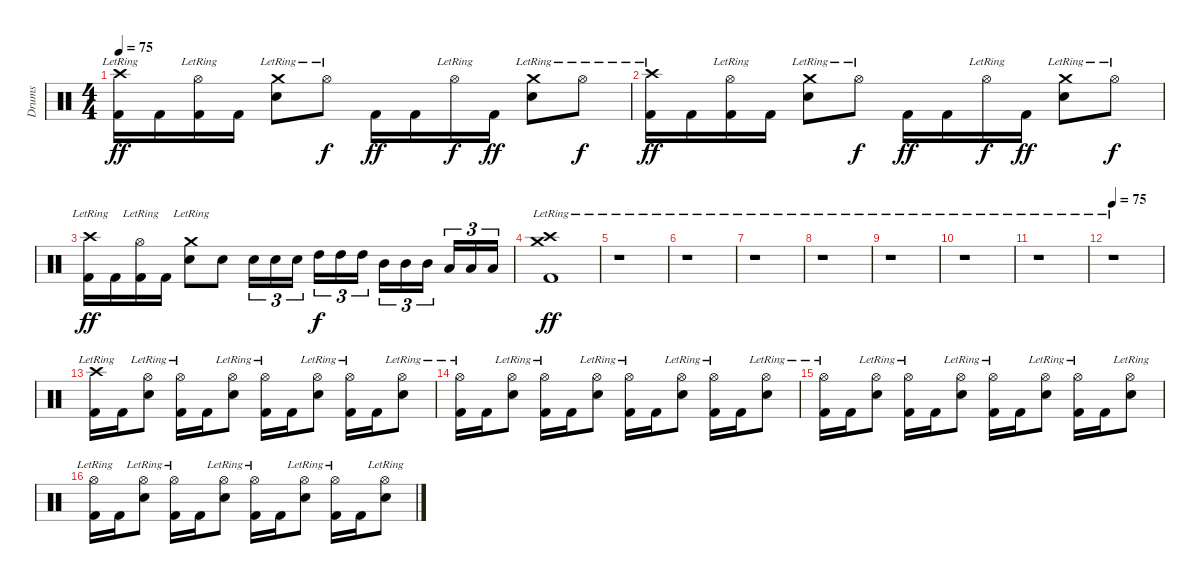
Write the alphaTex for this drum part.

\track ("Drums" "Drums") {instrument percussion}
\staff {score}
\articulation defaults
\ts (4 4)
\tempo 75
\clef neutral
\ks c
("Crash high (hit)"{lr} "Kick (hit) 2").16{dy ff} "Kick (hit) 2".16 ("Hi-Hat (open)"{lr} "Kick (hit) 2").16 "Kick (hit) 2".16 ("Crash medium (hit)"{lr} "Snare (hit) 2").8 "Hi-Hat (open)"{lr}.8{dy f} "Kick (hit) 2".16{dy ff} "Kick (hit) 2".16 "Hi-Hat (open)"{lr}.16{dy f} "Kick (hit) 2".16{dy ff} ("Crash medium (hit)"{lr} "Snare (hit) 2").8 "Hi-Hat (open)"{lr}.8{dy f} |
("Crash high (hit)"{lr} "Kick (hit) 2").16{dy ff} "Kick (hit) 2".16 ("Hi-Hat (open)"{lr} "Kick (hit) 2").16 "Kick (hit) 2".16 ("Crash medium (hit)"{lr} "Snare (hit) 2").8 "Hi-Hat (open)"{lr}.8{dy f} "Kick (hit) 2".16{dy ff} "Kick (hit) 2".16 "Hi-Hat (open)"{lr}.16{dy f} "Kick (hit) 2".16{dy ff} ("Crash medium (hit)"{lr} "Snare (hit) 2").8 "Hi-Hat (open)"{lr}.8{dy f} |
("Crash high (hit)"{lr} "Kick (hit) 2").16{dy ff} "Kick (hit) 2".16 ("Hi-Hat (open)"{lr} "Kick (hit) 2").16 "Kick (hit) 2".16 ("Crash medium (hit)"{lr} "Snare (hit) 2").8 "Snare (hit) 2".8 "Snare (hit) 2".16{tu (3 2)} "Snare (hit) 2".16{tu (3 2)} "Snare (hit) 2".16{tu (3 2)} "High Tom (hit)".16{tu (3 2) dy f} "High Tom (hit)".16{tu (3 2)} "High Tom (hit)".16{tu (3 2)} "Mid Tom (hit)".16{tu (3 2)} "Mid Tom (hit)".16{tu (3 2)} "Mid Tom (hit)".16{tu (3 2)} "Low Tom (hit)".16{tu (3 2)} "Low Tom (hit)".16{tu (3 2)} "Low Tom (hit)".16{tu (3 2)} |
("Crash medium (hit)"{lr} "Crash high (hit)"{lr} "Kick (hit) 2").1{dy ff} |
r.1 |
r.1 |
r.1 |
r.1 |
r.1 |
r.1 |
r.1 |
\tempo 75
r.1 |
("Crash high (hit)"{lr} "Kick (hit) 2").16 "Kick (hit) 2".16 ("Hi-Hat (open)"{lr} "Snare (hit) 2").8 ("Hi-Hat (open)"{lr} "Kick (hit) 2").16 "Kick (hit) 2".16 ("Hi-Hat (open)"{lr} "Snare (hit) 2").8 ("Hi-Hat (open)"{lr} "Kick (hit) 2").16 "Kick (hit) 2".16 ("Hi-Hat (open)"{lr} "Snare (hit) 2").8 ("Hi-Hat (open)"{lr} "Kick (hit) 2").16 "Kick (hit) 2".16 ("Hi-Hat (open)"{lr} "Snare (hit) 2").8 |
("Hi-Hat (open)"{lr} "Kick (hit) 2").16 "Kick (hit) 2".16 ("Hi-Hat (open)"{lr} "Snare (hit) 2").8 ("Hi-Hat (open)"{lr} "Kick (hit) 2").16 "Kick (hit) 2".16 ("Hi-Hat (open)"{lr} "Snare (hit) 2").8 ("Hi-Hat (open)"{lr} "Kick (hit) 2").16 "Kick (hit) 2".16 ("Hi-Hat (open)"{lr} "Snare (hit) 2").8 ("Hi-Hat (open)"{lr} "Kick (hit) 2").16 "Kick (hit) 2".16 ("Hi-Hat (open)"{lr} "Snare (hit) 2").8 |
("Hi-Hat (open)"{lr} "Kick (hit) 2").16 "Kick (hit) 2".16 ("Hi-Hat (open)"{lr} "Snare (hit) 2").8 ("Hi-Hat (open)"{lr} "Kick (hit) 2").16 "Kick (hit) 2".16 ("Hi-Hat (open)"{lr} "Snare (hit) 2").8 ("Hi-Hat (open)"{lr} "Kick (hit) 2").16 "Kick (hit) 2".16 ("Hi-Hat (open)"{lr} "Snare (hit) 2").8 ("Hi-Hat (open)"{lr} "Kick (hit) 2").16 "Kick (hit) 2".16 ("Hi-Hat (open)"{lr} "Snare (hit) 2").8 |
("Hi-Hat (open)"{lr} "Kick (hit) 2").16 "Kick (hit) 2".16 ("Hi-Hat (open)"{lr} "Snare (hit) 2").8 ("Hi-Hat (open)"{lr} "Kick (hit) 2").16 "Kick (hit) 2".16 ("Hi-Hat (open)"{lr} "Snare (hit) 2").8 ("Hi-Hat (open)"{lr} "Kick (hit) 2").16 "Kick (hit) 2".16 ("Hi-Hat (open)"{lr} "Snare (hit) 2").8 ("Hi-Hat (open)"{lr} "Kick (hit) 2").16 "Kick (hit) 2".16 ("Hi-Hat (open)"{lr} "Snare (hit) 2").8
